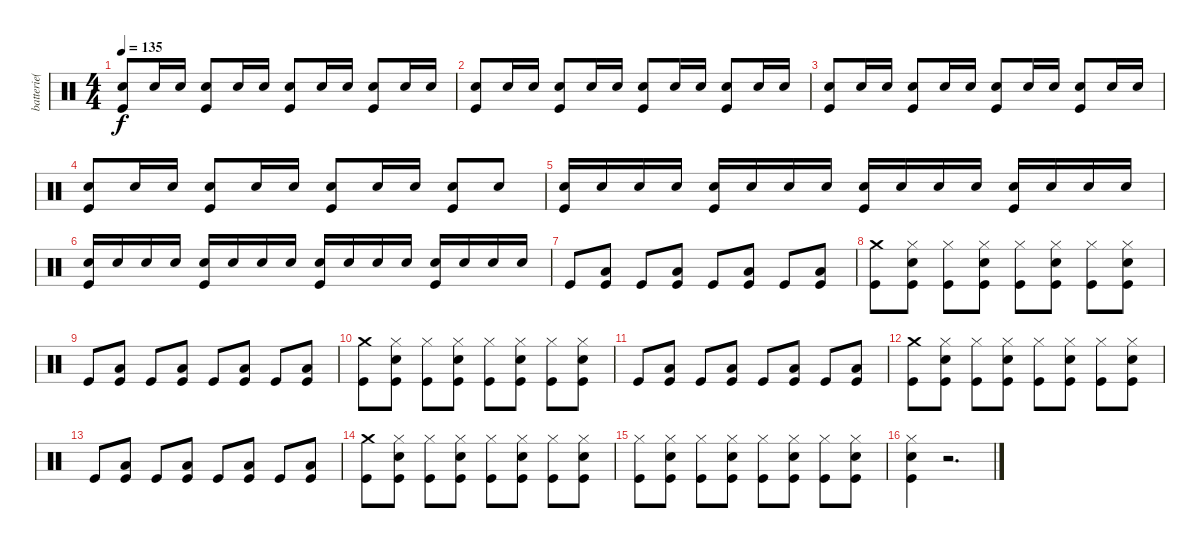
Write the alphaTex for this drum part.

\track ("batterie( Shane )" "batterie( ") {instrument percussion}
\staff {score}
\articulation defaults
\ts (4 4)
\tempo 135
\clef neutral
\ks c
("Snare (hit) 2" "Kick (hit)").8{dy f} "Snare (hit) 2".16 "Snare (hit) 2".16 ("Snare (hit) 2" "Kick (hit)").8 "Snare (hit) 2".16 "Snare (hit) 2".16 ("Snare (hit) 2" "Kick (hit)").8 "Snare (hit) 2".16 "Snare (hit) 2".16 ("Snare (hit) 2" "Kick (hit)").8 "Snare (hit) 2".16 "Snare (hit) 2".16 |
("Snare (hit) 2" "Kick (hit)").8 "Snare (hit) 2".16 "Snare (hit) 2".16 ("Snare (hit) 2" "Kick (hit)").8 "Snare (hit) 2".16 "Snare (hit) 2".16 ("Snare (hit) 2" "Kick (hit)").8 "Snare (hit) 2".16 "Snare (hit) 2".16 ("Snare (hit) 2" "Kick (hit)").8 "Snare (hit) 2".16 "Snare (hit) 2".16 |
("Snare (hit) 2" "Kick (hit)").8 "Snare (hit) 2".16 "Snare (hit) 2".16 ("Snare (hit) 2" "Kick (hit)").8 "Snare (hit) 2".16 "Snare (hit) 2".16 ("Snare (hit) 2" "Kick (hit)").8 "Snare (hit) 2".16 "Snare (hit) 2".16 ("Snare (hit) 2" "Kick (hit)").8 "Snare (hit) 2".16 "Snare (hit) 2".16 |
("Snare (hit) 2" "Kick (hit)").8 "Snare (hit) 2".16 "Snare (hit) 2".16 ("Snare (hit) 2" "Kick (hit)").8 "Snare (hit) 2".16 "Snare (hit) 2".16 ("Snare (hit) 2" "Kick (hit)").8 "Snare (hit) 2".16 "Snare (hit) 2".16 ("Snare (hit) 2" "Kick (hit)").8 "Snare (hit) 2".8 |
("Snare (hit) 2" "Kick (hit)").16 "Snare (hit) 2".16 "Snare (hit) 2".16 "Snare (hit) 2".16 ("Snare (hit) 2" "Kick (hit)").16 "Snare (hit) 2".16 "Snare (hit) 2".16 "Snare (hit) 2".16 ("Snare (hit) 2" "Kick (hit)").16 "Snare (hit) 2".16 "Snare (hit) 2".16 "Snare (hit) 2".16 ("Snare (hit) 2" "Kick (hit)").16 "Snare (hit) 2".16 "Snare (hit) 2".16 "Snare (hit) 2".16 |
("Snare (hit) 2" "Kick (hit)").16 "Snare (hit) 2".16 "Snare (hit) 2".16 "Snare (hit) 2".16 ("Snare (hit) 2" "Kick (hit)").16 "Snare (hit) 2".16 "Snare (hit) 2".16 "Snare (hit) 2".16 ("Snare (hit) 2" "Kick (hit)").16 "Snare (hit) 2".16 "Snare (hit) 2".16 "Snare (hit) 2".16 ("Snare (hit) 2" "Kick (hit)").16 "Snare (hit) 2".16 "Snare (hit) 2".16 "Snare (hit) 2".16 |
"Kick (hit)".8 ("Low Floor Tom (hit)" "Kick (hit)").8 "Kick (hit)".8 ("Low Floor Tom (hit)" "Kick (hit)").8 "Kick (hit)".8 ("Low Floor Tom (hit)" "Kick (hit)").8 "Kick (hit)".8 ("Low Floor Tom (hit)" "Kick (hit)").8 |
("Crash medium (hit)" "Kick (hit)").8 ("Hi-Hat (closed)" "Snare (hit) 2" "Kick (hit)").8 ("Hi-Hat (closed)" "Kick (hit)").8 ("Hi-Hat (closed)" "Snare (hit) 2" "Kick (hit)").8 ("Hi-Hat (closed)" "Kick (hit)").8 ("Hi-Hat (closed)" "Snare (hit) 2" "Kick (hit)").8 ("Hi-Hat (closed)" "Kick (hit)").8 ("Hi-Hat (closed)" "Snare (hit) 2" "Kick (hit)").8 |
"Kick (hit)".8 ("Low Floor Tom (hit)" "Kick (hit)").8 "Kick (hit)".8 ("Low Floor Tom (hit)" "Kick (hit)").8 "Kick (hit)".8 ("Low Floor Tom (hit)" "Kick (hit)").8 "Kick (hit)".8 ("Low Floor Tom (hit)" "Kick (hit)").8 |
("Crash medium (hit)" "Kick (hit)").8 ("Hi-Hat (closed)" "Snare (hit) 2" "Kick (hit)").8 ("Hi-Hat (closed)" "Kick (hit)").8 ("Hi-Hat (closed)" "Snare (hit) 2" "Kick (hit)").8 ("Hi-Hat (closed)" "Kick (hit)").8 ("Hi-Hat (closed)" "Snare (hit) 2" "Kick (hit)").8 ("Hi-Hat (closed)" "Kick (hit)").8 ("Hi-Hat (closed)" "Snare (hit) 2" "Kick (hit)").8 |
"Kick (hit)".8 ("Low Floor Tom (hit)" "Kick (hit)").8 "Kick (hit)".8 ("Low Floor Tom (hit)" "Kick (hit)").8 "Kick (hit)".8 ("Low Floor Tom (hit)" "Kick (hit)").8 "Kick (hit)".8 ("Low Floor Tom (hit)" "Kick (hit)").8 |
("Crash medium (hit)" "Kick (hit)").8 ("Hi-Hat (closed)" "Snare (hit) 2" "Kick (hit)").8 ("Hi-Hat (closed)" "Kick (hit)").8 ("Hi-Hat (closed)" "Snare (hit) 2" "Kick (hit)").8 ("Hi-Hat (closed)" "Kick (hit)").8 ("Hi-Hat (closed)" "Snare (hit) 2" "Kick (hit)").8 ("Hi-Hat (closed)" "Kick (hit)").8 ("Hi-Hat (closed)" "Snare (hit) 2" "Kick (hit)").8 |
"Kick (hit)".8 ("Low Floor Tom (hit)" "Kick (hit)").8 "Kick (hit)".8 ("Low Floor Tom (hit)" "Kick (hit)").8 "Kick (hit)".8 ("Low Floor Tom (hit)" "Kick (hit)").8 "Kick (hit)".8 ("Low Floor Tom (hit)" "Kick (hit)").8 |
("Crash medium (hit)" "Kick (hit)").8 ("Hi-Hat (closed)" "Snare (hit) 2" "Kick (hit)").8 ("Hi-Hat (closed)" "Kick (hit)").8 ("Hi-Hat (closed)" "Snare (hit) 2" "Kick (hit)").8 ("Hi-Hat (closed)" "Kick (hit)").8 ("Hi-Hat (closed)" "Snare (hit) 2" "Kick (hit)").8 ("Hi-Hat (closed)" "Kick (hit)").8 ("Hi-Hat (closed)" "Snare (hit) 2" "Kick (hit)").8 |
("Hi-Hat (closed)" "Kick (hit)").8 ("Hi-Hat (closed)" "Snare (hit) 2" "Kick (hit)").8 ("Hi-Hat (closed)" "Kick (hit)").8 ("Hi-Hat (closed)" "Snare (hit) 2" "Kick (hit)").8 ("Hi-Hat (closed)" "Kick (hit)").8 ("Hi-Hat (closed)" "Snare (hit) 2" "Kick (hit)").8 ("Hi-Hat (closed)" "Kick (hit)").8 ("Hi-Hat (closed)" "Snare (hit) 2" "Kick (hit)").8 |
("Hi-Hat (closed)" "Snare (hit) 2" "Kick (hit)").4 r.2{d}
